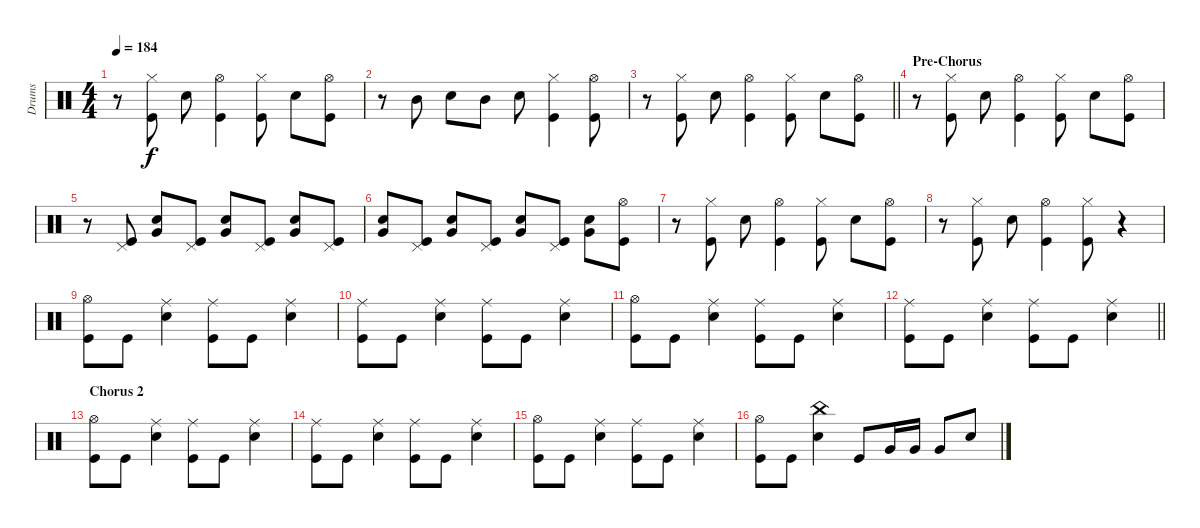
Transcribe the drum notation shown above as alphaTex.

\track (" Drums" " Drums") {instrument percussion}
\staff {score}
\articulation defaults
\ts (4 4)
\tempo 184
\clef neutral
\ks c
r.8{dy f} ("Kick (hit)" "Hi-Hat (closed)").8 "Snare (hit) 2".8 ("Kick (hit)" "Hi-Hat (open)").4 ("Hi-Hat (closed)" "Kick (hit)").8 "Snare (hit) 2".8 ("Kick (hit)" "Hi-Hat (open)").8 |
r.8 "Mid Tom (hit)".8 "Snare (hit) 2".8 "Mid Tom (hit)".8 "Snare (hit) 2".8 ("Kick (hit)" "Hi-Hat (closed)").4 ("Kick (hit)" "Hi-Hat (open)").8 |
\barLineRight lightlight
r.8 ("Kick (hit)" "Hi-Hat (closed)").8 "Snare (hit) 2".8 ("Kick (hit)" "Hi-Hat (open)").4 ("Kick (hit)" "Hi-Hat (closed)").8 "Snare (hit) 2".8 ("Kick (hit)" "Hi-Hat (open)").8 |
\section ("" "Pre-Chorus")
r.8 ("Kick (hit)" "Hi-Hat (closed)").8 "Snare (hit) 2".8 ("Kick (hit)" "Hi-Hat (open)").4 ("Kick (hit)" "Hi-Hat (closed)").8 "Snare (hit) 2".8 ("Kick (hit)" "Hi-Hat (open)").8 |
r.8 ("Kick (hit)" "Pedal Hi-Hat (hit)").8 ("Snare (hit) 2" "Very Low Tom (hit)").8 ("Kick (hit)" "Pedal Hi-Hat (hit)").8 ("Snare (hit) 2" "Very Low Tom (hit)").8 ("Pedal Hi-Hat (hit)" "Kick (hit)").8 ("Snare (hit) 2" "Very Low Tom (hit)").8 ("Kick (hit)" "Pedal Hi-Hat (hit)").8 |
("Snare (hit) 2" "Very Low Tom (hit)").8 ("Kick (hit)" "Pedal Hi-Hat (hit)").8 ("Snare (hit) 2" "Very Low Tom (hit)").8 ("Kick (hit)" "Pedal Hi-Hat (hit)").8 ("Snare (hit) 2" "Very Low Tom (hit)").8 ("Kick (hit)" "Pedal Hi-Hat (hit)").8 ("Snare (hit) 2" "Very Low Tom (hit)").8 ("Kick (hit)" "Hi-Hat (open)").8 |
r.8 ("Kick (hit)" "Hi-Hat (closed)").8 "Snare (hit) 2".8 ("Kick (hit)" "Hi-Hat (open)").4 ("Kick (hit)" "Hi-Hat (closed)").8 "Snare (hit) 2".8 ("Kick (hit)" "Hi-Hat (open)").8 |
r.8 ("Kick (hit)" "Hi-Hat (closed)").8 "Snare (hit) 2".8 ("Kick (hit)" "Hi-Hat (open)").4 ("Kick (hit)" "Hi-Hat (closed)").8 r.4 |
("Kick (hit)" "Hi-Hat (open)").8 "Kick (hit)".8 ("Snare (hit) 2" "Ride (middle)").4 ("Kick (hit)" "Ride (middle)").8 "Kick (hit)".8 ("Snare (hit) 2" "Ride (middle)").4 |
("Kick (hit)" "Ride (middle)").8 "Kick (hit)".8 ("Snare (hit) 2" "Ride (middle)").4 ("Kick (hit)" "Ride (middle)").8 "Kick (hit)".8 ("Snare (hit) 2" "Ride (middle)").4 |
("Kick (hit)" "Hi-Hat (open)").8 "Kick (hit)".8 ("Snare (hit) 2" "Ride (middle)").4 ("Kick (hit)" "Ride (middle)").8 "Kick (hit)".8 ("Snare (hit) 2" "Ride (middle)").4 |
\barLineRight lightlight
("Kick (hit)" "Ride (middle)").8 "Kick (hit)".8 ("Snare (hit) 2" "Ride (middle)").4 ("Kick (hit)" "Ride (middle)").8 "Kick (hit)".8 ("Snare (hit) 2" "Ride (middle)").4 |
\section ("" "Chorus 2")
("Kick (hit)" "Hi-Hat (open)").8 "Kick (hit)".8 ("Snare (hit) 2" "Ride (middle)").4 ("Kick (hit)" "Ride (middle)").8 "Kick (hit)".8 ("Snare (hit) 2" "Ride (middle)").4 |
("Kick (hit)" "Ride (middle)").8 "Kick (hit)".8 ("Snare (hit) 2" "Ride (middle)").4 ("Kick (hit)" "Ride (middle)").8 "Kick (hit)".8 ("Snare (hit) 2" "Ride (middle)").4 |
("Kick (hit)" "Hi-Hat (open)").8 "Kick (hit)".8 ("Snare (hit) 2" "Ride (middle)").4 ("Kick (hit)" "Ride (middle)").8 "Kick (hit)".8 ("Snare (hit) 2" "Ride (middle)").4 |
("Kick (hit)" "Hi-Hat (open)").8 "Kick (hit)".8 ("Snare (hit) 2" "China (hit)").4 "Kick (hit)".8 "Very Low Tom (hit)".16 "Very Low Tom (hit)".16 "Very Low Tom (hit)".8 "Snare (hit) 2".8
